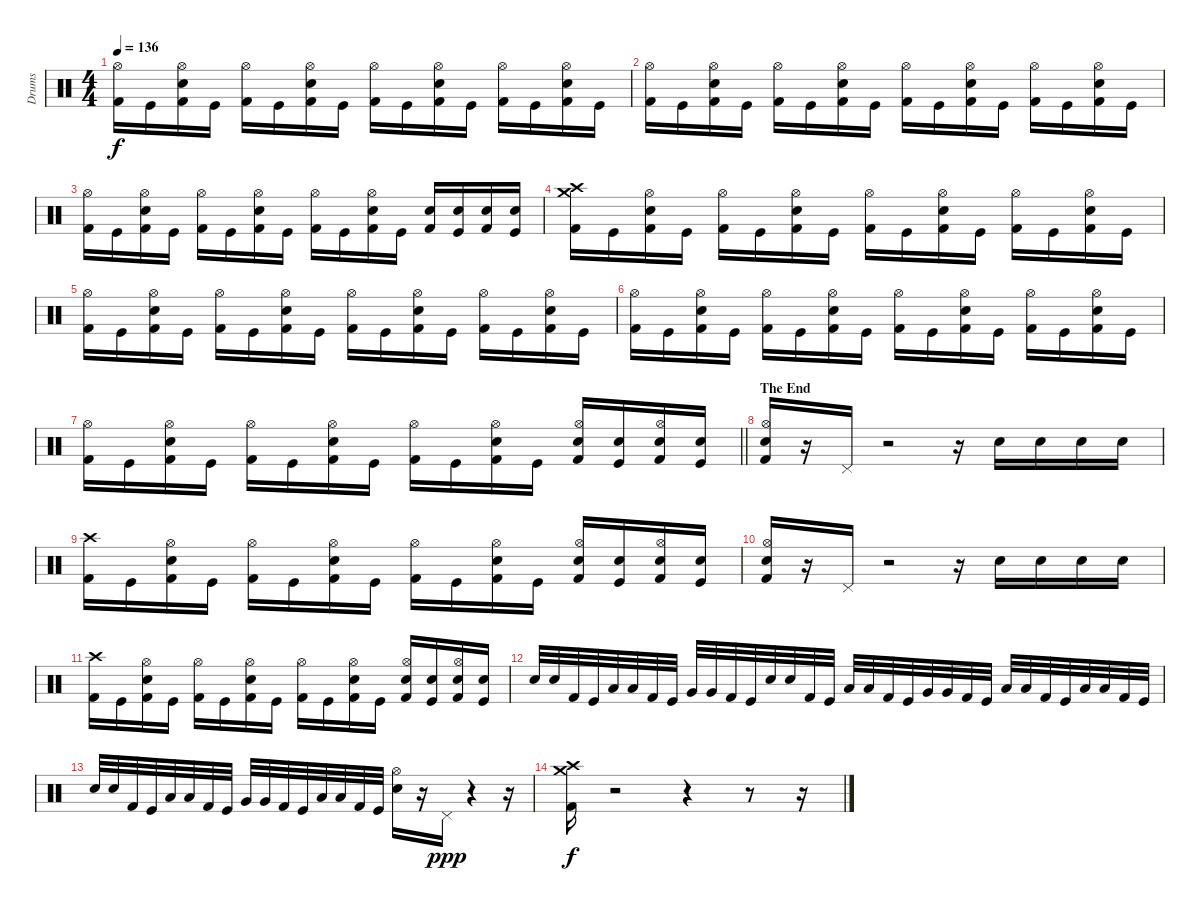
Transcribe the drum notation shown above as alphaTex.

\track ("Drums" "Drums") {instrument percussion}
\staff {score}
\articulation defaults
\ts (4 4)
\tempo 136
\clef neutral
\ks c
("Kick (hit) 2" "Hi-Hat (open)").16{dy f} "Kick (hit)".16 ("Kick (hit) 2" "Snare (hit) 2" "Hi-Hat (open)").16 "Kick (hit)".16 ("Kick (hit) 2" "Hi-Hat (open)").16 "Kick (hit)".16 ("Kick (hit) 2" "Snare (hit) 2" "Hi-Hat (open)").16 "Kick (hit)".16 ("Kick (hit) 2" "Hi-Hat (open)").16 "Kick (hit)".16 ("Kick (hit) 2" "Snare (hit) 2" "Hi-Hat (open)").16 "Kick (hit)".16 ("Kick (hit) 2" "Hi-Hat (open)").16 "Kick (hit)".16 ("Kick (hit) 2" "Snare (hit) 2" "Hi-Hat (open)").16 "Kick (hit)".16 |
("Kick (hit) 2" "Hi-Hat (open)").16 "Kick (hit)".16 ("Kick (hit) 2" "Snare (hit) 2" "Hi-Hat (open)").16 "Kick (hit)".16 ("Kick (hit) 2" "Hi-Hat (open)").16 "Kick (hit)".16 ("Kick (hit) 2" "Snare (hit) 2" "Hi-Hat (open)").16 "Kick (hit)".16 ("Kick (hit) 2" "Hi-Hat (open)").16 "Kick (hit)".16 ("Kick (hit) 2" "Snare (hit) 2" "Hi-Hat (open)").16 "Kick (hit)".16 ("Kick (hit) 2" "Hi-Hat (open)").16 "Kick (hit)".16 ("Kick (hit) 2" "Snare (hit) 2" "Hi-Hat (open)").16 "Kick (hit)".16 |
("Kick (hit) 2" "Hi-Hat (open)").16 "Kick (hit)".16 ("Kick (hit) 2" "Snare (hit) 2" "Hi-Hat (open)").16 "Kick (hit)".16 ("Kick (hit) 2" "Hi-Hat (open)").16 "Kick (hit)".16 ("Kick (hit) 2" "Snare (hit) 2" "Hi-Hat (open)").16 "Kick (hit)".16 ("Kick (hit) 2" "Hi-Hat (open)").16 "Kick (hit)".16 ("Kick (hit) 2" "Snare (hit) 2" "Hi-Hat (open)").16 "Kick (hit)".16 ("Kick (hit) 2" "Snare (hit) 2").16 ("Kick (hit)" "Snare (hit) 2").16 ("Kick (hit) 2" "Snare (hit) 2").16 ("Kick (hit)" "Snare (hit) 2").16 |
("Kick (hit) 2" "Crash high (hit)" "Crash medium (hit)").16 "Kick (hit)".16 ("Kick (hit) 2" "Snare (hit) 2" "Hi-Hat (open)").16 "Kick (hit)".16 ("Kick (hit) 2" "Hi-Hat (open)").16 "Kick (hit)".16 ("Kick (hit) 2" "Snare (hit) 2" "Hi-Hat (open)").16 "Kick (hit)".16 ("Kick (hit) 2" "Hi-Hat (open)").16 "Kick (hit)".16 ("Kick (hit) 2" "Snare (hit) 2" "Hi-Hat (open)").16 "Kick (hit)".16 ("Kick (hit) 2" "Hi-Hat (open)").16 "Kick (hit)".16 ("Kick (hit) 2" "Snare (hit) 2" "Hi-Hat (open)").16 "Kick (hit)".16 |
("Kick (hit) 2" "Hi-Hat (open)").16 "Kick (hit)".16 ("Kick (hit) 2" "Snare (hit) 2" "Hi-Hat (open)").16 "Kick (hit)".16 ("Kick (hit) 2" "Hi-Hat (open)").16 "Kick (hit)".16 ("Kick (hit) 2" "Snare (hit) 2" "Hi-Hat (open)").16 "Kick (hit)".16 ("Kick (hit) 2" "Hi-Hat (open)").16 "Kick (hit)".16 ("Kick (hit) 2" "Snare (hit) 2" "Hi-Hat (open)").16 "Kick (hit)".16 ("Kick (hit) 2" "Hi-Hat (open)").16 "Kick (hit)".16 ("Kick (hit) 2" "Snare (hit) 2" "Hi-Hat (open)").16 "Kick (hit)".16 |
("Kick (hit) 2" "Hi-Hat (open)").16 "Kick (hit)".16 ("Kick (hit) 2" "Snare (hit) 2" "Hi-Hat (open)").16 "Kick (hit)".16 ("Kick (hit) 2" "Hi-Hat (open)").16 "Kick (hit)".16 ("Kick (hit) 2" "Snare (hit) 2" "Hi-Hat (open)").16 "Kick (hit)".16 ("Kick (hit) 2" "Hi-Hat (open)").16 "Kick (hit)".16 ("Kick (hit) 2" "Snare (hit) 2" "Hi-Hat (open)").16 "Kick (hit)".16 ("Kick (hit) 2" "Hi-Hat (open)").16 "Kick (hit)".16 ("Kick (hit) 2" "Snare (hit) 2" "Hi-Hat (open)").16 "Kick (hit)".16 |
\barLineRight lightlight
("Kick (hit) 2" "Hi-Hat (open)").16 "Kick (hit)".16 ("Kick (hit) 2" "Snare (hit) 2" "Hi-Hat (open)").16 "Kick (hit)".16 ("Kick (hit) 2" "Hi-Hat (open)").16 "Kick (hit)".16 ("Kick (hit) 2" "Snare (hit) 2" "Hi-Hat (open)").16 "Kick (hit)".16 ("Kick (hit) 2" "Hi-Hat (open)").16 "Kick (hit)".16 ("Kick (hit) 2" "Snare (hit) 2" "Hi-Hat (open)").16 "Kick (hit)".16 ("Kick (hit) 2" "Snare (hit) 2" "Hi-Hat (open)").16 ("Kick (hit)" "Snare (hit) 2").16 ("Kick (hit) 2" "Snare (hit) 2" "Hi-Hat (open)").16 ("Kick (hit)" "Snare (hit) 2").16 |
\section ("" "The End")
("Kick (hit) 2" "Snare (hit) 2" "Hi-Hat (open)").16 r.16 "Pedal Hi-Hat (hit)".16 r.2 r.16 "Snare (hit) 2".16 "Snare (hit) 2".16 "Snare (hit) 2".16 "Snare (hit) 2".16 |
("Kick (hit) 2" "Crash high (hit)").16 "Kick (hit)".16 ("Kick (hit) 2" "Snare (hit) 2" "Hi-Hat (open)").16 "Kick (hit)".16 ("Kick (hit) 2" "Hi-Hat (open)").16 "Kick (hit)".16 ("Kick (hit) 2" "Snare (hit) 2" "Hi-Hat (open)").16 "Kick (hit)".16 ("Kick (hit) 2" "Hi-Hat (open)").16 "Kick (hit)".16 ("Kick (hit) 2" "Snare (hit) 2" "Hi-Hat (open)").16 "Kick (hit)".16 ("Kick (hit) 2" "Snare (hit) 2" "Hi-Hat (open)").16 ("Kick (hit)" "Snare (hit) 2").16 ("Kick (hit) 2" "Snare (hit) 2" "Hi-Hat (open)").16 ("Kick (hit)" "Snare (hit) 2").16 |
("Kick (hit) 2" "Snare (hit) 2" "Hi-Hat (open)").16 r.16 "Pedal Hi-Hat (hit)".16 r.2 r.16 "Snare (hit) 2".16 "Snare (hit) 2".16 "Snare (hit) 2".16 "Snare (hit) 2".16 |
("Kick (hit) 2" "Crash high (hit)").16 "Kick (hit)".16 ("Kick (hit) 2" "Snare (hit) 2" "Hi-Hat (open)").16 "Kick (hit)".16 ("Kick (hit) 2" "Hi-Hat (open)").16 "Kick (hit)".16 ("Kick (hit) 2" "Snare (hit) 2" "Hi-Hat (open)").16 "Kick (hit)".16 ("Kick (hit) 2" "Hi-Hat (open)").16 "Kick (hit)".16 ("Kick (hit) 2" "Snare (hit) 2" "Hi-Hat (open)").16 "Kick (hit)".16 ("Kick (hit) 2" "Snare (hit) 2" "Hi-Hat (open)").16 ("Kick (hit)" "Snare (hit) 2").16 ("Kick (hit) 2" "Snare (hit) 2" "Hi-Hat (open)").16 ("Kick (hit)" "Snare (hit) 2").16 |
"Snare (hit) 2".32 "Snare (hit) 2".32 "Kick (hit) 2".32 "Kick (hit)".32 "Low Tom (hit)".32 "Low Tom (hit)".32 "Kick (hit) 2".32 "Kick (hit)".32 "Very Low Tom (hit)".32 "Very Low Tom (hit)".32 "Kick (hit) 2".32 "Kick (hit)".32 "Snare (hit) 2".32 "Snare (hit) 2".32 "Kick (hit) 2".32 "Kick (hit)".32 "Low Tom (hit)".32 "Low Tom (hit)".32 "Kick (hit) 2".32 "Kick (hit)".32 "Very Low Tom (hit)".32 "Very Low Tom (hit)".32 "Kick (hit) 2".32 "Kick (hit)".32 "Low Floor Tom (hit)".32 "Low Floor Tom (hit)".32 "Kick (hit) 2".32 "Kick (hit)".32 "Low Floor Tom (hit)".32 "Low Floor Tom (hit)".32 "Kick (hit) 2".32 "Kick (hit)".32 |
"Snare (hit) 2".32 "Snare (hit) 2".32 "Kick (hit) 2".32 "Kick (hit)".32 "Low Tom (hit)".32 "Low Tom (hit)".32 "Kick (hit) 2".32 "Kick (hit)".32 "Very Low Tom (hit)".32 "Very Low Tom (hit)".32 "Kick (hit) 2".32 "Kick (hit)".32 "Low Floor Tom (hit)".32 "Low Floor Tom (hit)".32 "Kick (hit) 2".32 "Kick (hit)".32 ("Snare (hit) 2" "Hi-Hat (open)").16 r.16 "Pedal Hi-Hat (hit)".16{dy ppp} r.4 r.16 |
("Kick (hit) 2" "Crash high (hit)" "Crash medium (hit)").16{dy f} r.2 r.4 r.8 r.16
